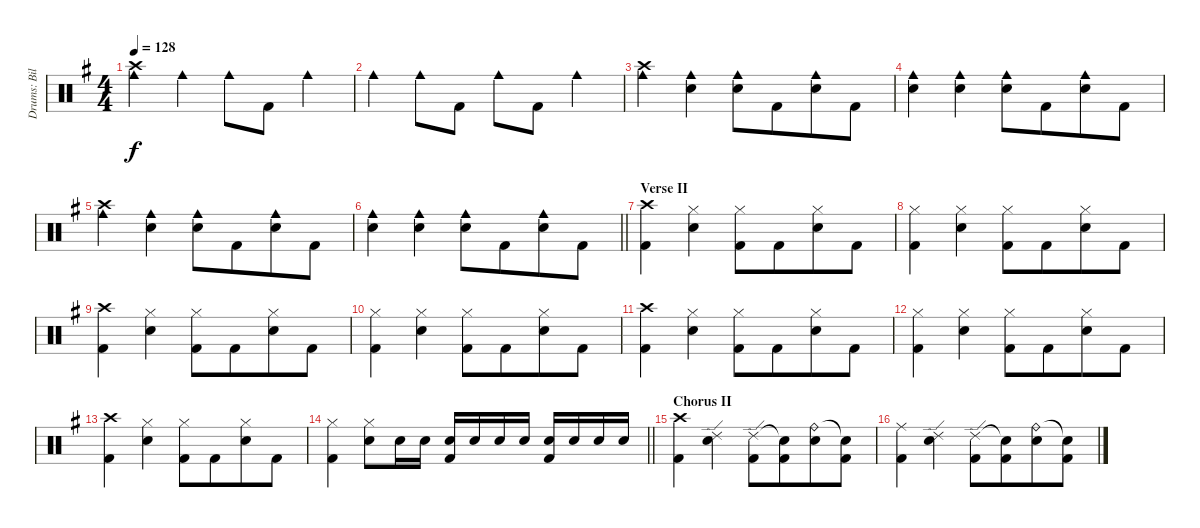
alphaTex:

\track ("Drums: Bill" "Drums: Bil") {instrument percussion}
\staff {score}
\articulation defaults
\ts (4 4)
\tempo 128
\clef neutral
\ks g
("Crash high (hit)" "Cowbell medium (hit)").4{dy f} "Cowbell medium (hit)".4 "Cowbell medium (hit)".8 "Kick (hit) 2".8 "Cowbell medium (hit)".4 |
"Cowbell medium (hit)".4 "Cowbell medium (hit)".8 "Kick (hit) 2".8 "Cowbell medium (hit)".8 "Kick (hit) 2".8 "Cowbell medium (hit)".4 |
("Crash high (hit)" "Cowbell medium (hit)").4 ("Snare (hit) 2" "Cowbell medium (hit)").4 ("Snare (hit) 2" "Cowbell medium (hit)").8 "Kick (hit) 2".8{beam merge} ("Snare (hit) 2" "Cowbell medium (hit)").8 "Kick (hit) 2".8 |
("Snare (hit) 2" "Cowbell medium (hit)").4 ("Snare (hit) 2" "Cowbell medium (hit)").4 ("Snare (hit) 2" "Cowbell medium (hit)").8 "Kick (hit) 2".8{beam merge} ("Snare (hit) 2" "Cowbell medium (hit)").8 "Kick (hit) 2".8 |
("Crash high (hit)" "Cowbell medium (hit)").4 ("Snare (hit) 2" "Cowbell medium (hit)").4 ("Snare (hit) 2" "Cowbell medium (hit)").8 "Kick (hit) 2".8{beam merge} ("Snare (hit) 2" "Cowbell medium (hit)").8 "Kick (hit) 2".8 |
\barLineRight lightlight
("Snare (hit) 2" "Cowbell medium (hit)").4 ("Snare (hit) 2" "Cowbell medium (hit)").4 ("Snare (hit) 2" "Cowbell medium (hit)").8 "Kick (hit) 2".8{beam merge} ("Snare (hit) 2" "Cowbell medium (hit)").8 "Kick (hit) 2".8 |
\section ("" "Verse II")
("Crash high (hit)" "Kick (hit) 2").4 ("Hi-Hat (closed)" "Snare (hit) 2").4{beam split} ("Hi-Hat (closed)" "Kick (hit) 2").8 "Kick (hit) 2".8{beam merge} ("Hi-Hat (closed)" "Snare (hit) 2").8 "Kick (hit) 2".8 |
("Hi-Hat (closed)" "Kick (hit) 2").4 ("Hi-Hat (closed)" "Snare (hit) 2").4{beam split} ("Hi-Hat (closed)" "Kick (hit) 2").8 "Kick (hit) 2".8{beam merge} ("Hi-Hat (closed)" "Snare (hit) 2").8 "Kick (hit) 2".8 |
("Crash high (hit)" "Kick (hit) 2").4 ("Hi-Hat (closed)" "Snare (hit) 2").4{beam split} ("Hi-Hat (closed)" "Kick (hit) 2").8 "Kick (hit) 2".8{beam merge} ("Hi-Hat (closed)" "Snare (hit) 2").8 "Kick (hit) 2".8 |
("Hi-Hat (closed)" "Kick (hit) 2").4 ("Hi-Hat (closed)" "Snare (hit) 2").4{beam split} ("Hi-Hat (closed)" "Kick (hit) 2").8 "Kick (hit) 2".8{beam merge} ("Hi-Hat (closed)" "Snare (hit) 2").8 "Kick (hit) 2".8 |
("Crash high (hit)" "Kick (hit) 2").4 ("Hi-Hat (closed)" "Snare (hit) 2").4{beam split} ("Hi-Hat (closed)" "Kick (hit) 2").8 "Kick (hit) 2".8{beam merge} ("Hi-Hat (closed)" "Snare (hit) 2").8 "Kick (hit) 2".8 |
("Hi-Hat (closed)" "Kick (hit) 2").4 ("Hi-Hat (closed)" "Snare (hit) 2").4{beam split} ("Hi-Hat (closed)" "Kick (hit) 2").8 "Kick (hit) 2".8{beam merge} ("Hi-Hat (closed)" "Snare (hit) 2").8 "Kick (hit) 2".8 |
("Crash high (hit)" "Kick (hit) 2").4 ("Hi-Hat (closed)" "Snare (hit) 2").4{beam split} ("Hi-Hat (closed)" "Kick (hit) 2").8 "Kick (hit) 2".8{beam merge} ("Hi-Hat (closed)" "Snare (hit) 2").8 "Kick (hit) 2".8 |
\barLineRight lightlight
("Hi-Hat (closed)" "Kick (hit) 2").4 ("Hi-Hat (closed)" "Snare (hit) 2").8 "Snare (hit) 2".16 "Snare (hit) 2".16 ("Snare (hit) 2" "Kick (hit) 2").16 "Snare (hit) 2".16 "Snare (hit) 2".16 "Snare (hit) 2".16 ("Snare (hit) 2" "Kick (hit) 2").16 "Snare (hit) 2".16 "Snare (hit) 2".16 "Snare (hit) 2".16 |
\section ("" "Chorus II")
("Crash high (hit)" "Kick (hit) 2").4 ("Ride (edge) 2" "Snare (hit) 2").4{beam split} ("Ride (edge) 2" "Kick (hit) 2").8 ("Snare (hit)"{t} "Kick (hit) 2").8{beam merge} ("Ride (bell)" "Snare (hit) 2").8 ("Snare (hit)"{t} "Kick (hit) 2").8 |
("Ride (middle)" "Kick (hit) 2").4 ("Ride (edge) 2" "Snare (hit) 2").4{beam split} ("Ride (edge) 2" "Kick (hit) 2").8 ("Snare (hit)"{t} "Kick (hit) 2").8{beam merge} ("Ride (bell)" "Snare (hit) 2").8 ("Snare (hit)"{t} "Kick (hit) 2").8
